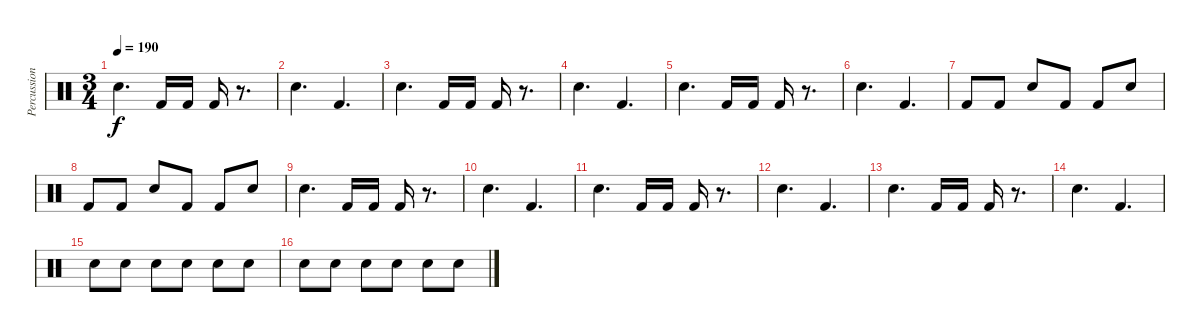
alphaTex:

\track ("Percussion" "Percussion") {instrument percussion}
\staff {score}
\articulation defaults
\ts (3 4)
\tempo 190
\clef neutral
\ks c "Snare (hit) 2".4{d dy f} "Kick (hit) 2".16 "Kick (hit) 2".16 "Kick (hit) 2".16
r.8{d} |
"Snare (hit) 2".4{d} "Kick (hit) 2".4{d} |
"Snare (hit) 2".4{d} "Kick (hit) 2".16 "Kick (hit) 2".16 "Kick (hit) 2".16 r.8{d} |
"Snare (hit) 2".4{d} "Kick (hit) 2".4{d} |
"Snare (hit) 2".4{d} "Kick (hit) 2".16 "Kick (hit) 2".16 "Kick (hit) 2".16 r.8{d} |
"Snare (hit) 2".4{d} "Kick (hit) 2".4{d} |
"Kick (hit) 2".8 "Kick (hit) 2".8 "Snare (hit) 2".8 "Kick (hit) 2".8 "Kick (hit) 2".8 "Snare (hit) 2".8 |
"Kick (hit) 2".8 "Kick (hit) 2".8 "Snare (hit) 2".8 "Kick (hit) 2".8 "Kick (hit) 2".8 "Snare (hit) 2".8 |
"Snare (hit) 2".4{d} "Kick (hit) 2".16 "Kick (hit) 2".16 "Kick (hit) 2".16 r.8{d} |
"Snare (hit) 2".4{d} "Kick (hit) 2".4{d} |
"Snare (hit) 2".4{d} "Kick (hit) 2".16 "Kick (hit) 2".16 "Kick (hit) 2".16 r.8{d} |
"Snare (hit) 2".4{d} "Kick (hit) 2".4{d} |
"Snare (hit) 2".4{d} "Kick (hit) 2".16 "Kick (hit) 2".16 "Kick (hit) 2".16 r.8{d} |
"Snare (hit) 2".4{d} "Kick (hit) 2".4{d} |
"Snare (hit) 2".8 "Snare (hit) 2".8 "Snare (hit) 2".8 "Snare (hit) 2".8 "Snare (hit) 2".8 "Snare (hit) 2".8 |
"Snare (hit) 2".8 "Snare (hit) 2".8 "Snare (hit) 2".8 "Snare (hit) 2".8 "Snare (hit) 2".8 "Snare (hit) 2".8
